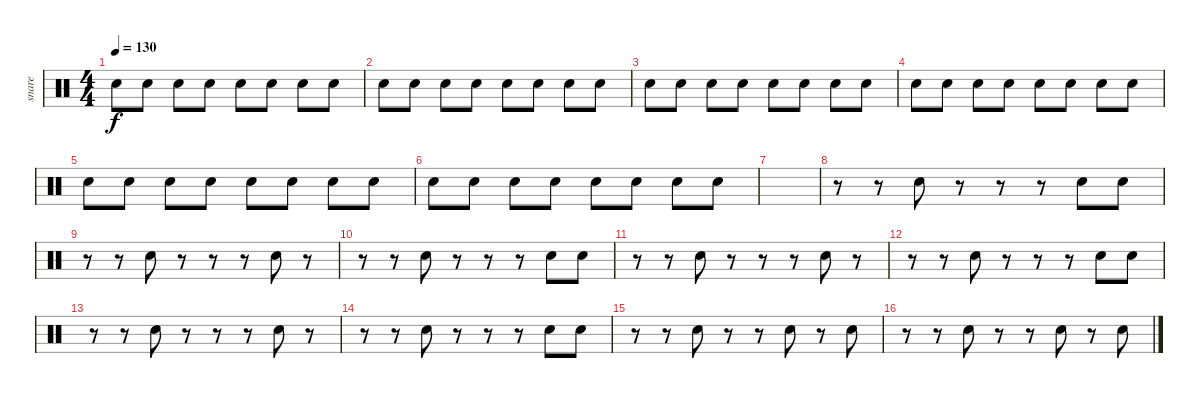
\track ("snare" "snare") {instrument percussion}
\staff {score}
\articulation defaults
\ts (4 4)
\tempo 130
\clef neutral
\ks c "Snare (hit)"{x}.8{dy f} "Snare (hit)"{x}.8 "Snare (hit) 2".8 "Snare (hit)"{x}.8 "Snare (hit)"{x}.8 "Snare (hit) 2".8 "Snare (hit)"{x}.8 "Snare (hit) 2".8
|
"Snare (hit)"{x}.8 "Snare (hit)"{x}.8 "Snare (hit) 2".8 "Snare (hit)"{x}.8 "Snare (hit)"{x}.8 "Snare (hit) 2".8 "Snare (hit)"{x}.8 "Snare (hit) 2".8 |
"Snare (hit)"{x}.8 "Snare (hit)"{x}.8 "Snare (hit) 2".8 "Snare (hit)"{x}.8 "Snare (hit)"{x}.8 "Snare (hit) 2".8 "Snare (hit)"{x}.8 "Snare (hit) 2".8 |
"Snare (hit)"{x}.8 "Snare (hit)"{x}.8 "Snare (hit) 2".8 "Snare (hit)"{x}.8 "Snare (hit)"{x}.8 "Snare (hit) 2".8 "Snare (hit) 2"{x}.8 "Snare (hit) 2".8 |
"Snare (hit)"{x}.8 "Snare (hit)"{x}.8 "Snare (hit) 2".8 "Snare (hit)"{x}.8 "Snare (hit) 2"{x}.8 "Snare (hit) 2".8 "Snare (hit)"{x}.8 "Snare (hit) 2".8 |
"Snare (hit)"{x}.8 "Snare (hit)"{x}.8 "Snare (hit) 2".8 "Snare (hit)"{x}.8 "Snare (hit)"{x}.8 "Snare (hit)"{x}.8 "Snare (hit) 2".8 "Snare (hit) 2".8 |
|
r.8 r.8 "Snare (hit) 2".8 r.8 r.8 r.8 "Snare (hit) 2".8 "Snare (hit) 2".8 |
r.8 r.8 "Snare (hit) 2".8 r.8 r.8 r.8 "Snare (hit) 2".8 r.8 |
r.8 r.8 "Snare (hit) 2".8 r.8 r.8 r.8 "Snare (hit) 2".8 "Snare (hit) 2".8 |
r.8 r.8 "Snare (hit) 2".8 r.8 r.8 r.8 "Snare (hit) 2".8 r.8 |
r.8 r.8 "Snare (hit) 2".8 r.8 r.8 r.8 "Snare (hit) 2".8 "Snare (hit) 2".8 |
r.8 r.8 "Snare (hit) 2".8 r.8 r.8 r.8 "Snare (hit) 2".8 r.8 |
r.8 r.8 "Snare (hit) 2".8 r.8 r.8 r.8 "Snare (hit) 2".8 "Snare (hit) 2".8 |
r.8 r.8 "Snare (hit) 2".8 r.8 r.8 "Snare (hit) 2".8 r.8 "Snare (hit) 2".8 |
r.8 r.8 "Snare (hit) 2".8 r.8 r.8 "Snare (hit) 2".8 r.8 "Snare (hit) 2".8
